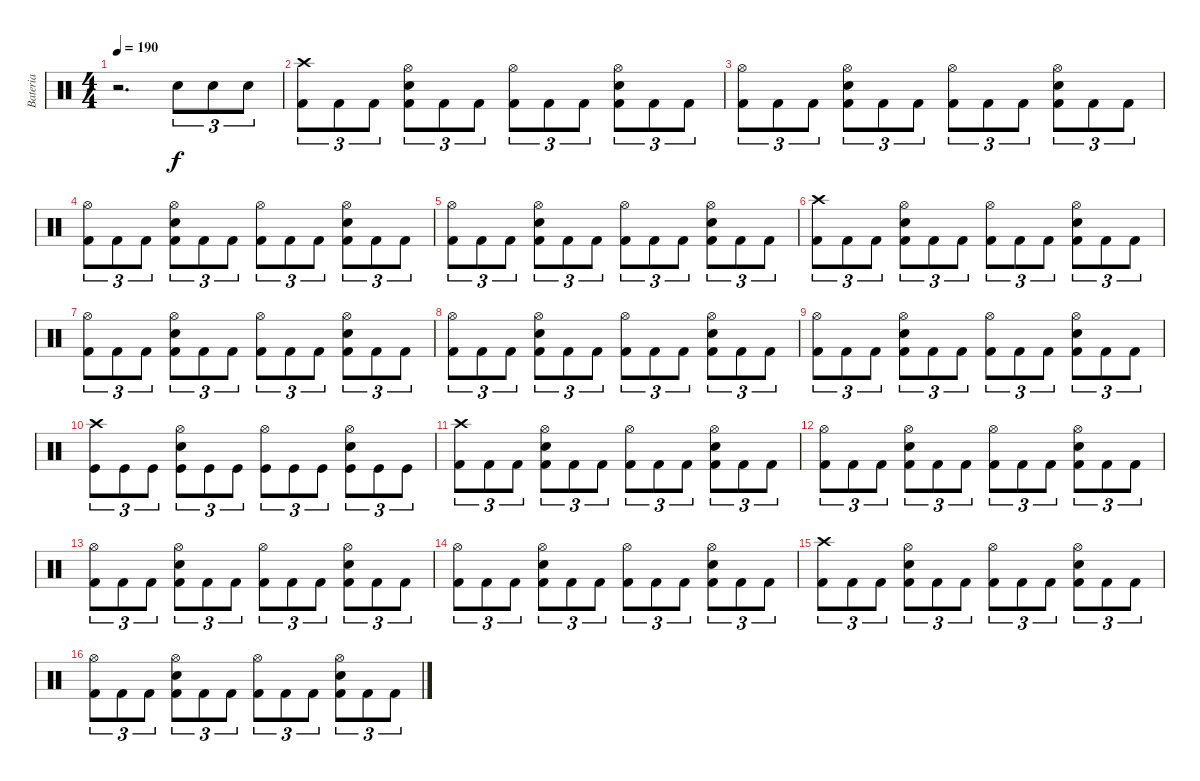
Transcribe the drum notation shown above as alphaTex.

\track ("Bateria" "Bateria") {instrument percussion}
\staff {score}
\articulation defaults
\ts (4 4)
\tempo 190
\clef neutral
\ks c
r.2{d dy f} "Electric Snare (hit)".8{tu (3 2)} "Electric Snare (hit)".8{tu (3 2)} "Electric Snare (hit)".8{tu (3 2)} |
("Crash high (hit)" "Kick (hit) 2").8{tu (3 2)} "Kick (hit) 2".8{tu (3 2)} "Kick (hit) 2".8{tu (3 2)} ("Hi-Hat (open)" "Electric Snare (hit)" "Kick (hit) 2").8{tu (3 2)} "Kick (hit) 2".8{tu (3 2)} "Kick (hit) 2".8{tu (3 2)} ("Hi-Hat (open)" "Kick (hit) 2").8{tu (3 2)} "Kick (hit) 2".8{tu (3 2)} "Kick (hit) 2".8{tu (3 2)} ("Hi-Hat (open)" "Electric Snare (hit)" "Kick (hit) 2").8{tu (3 2)} "Kick (hit) 2".8{tu (3 2)} "Kick (hit) 2".8{tu (3 2)} |
("Hi-Hat (open)" "Kick (hit) 2").8{tu (3 2)} "Kick (hit) 2".8{tu (3 2)} "Kick (hit) 2".8{tu (3 2)} ("Hi-Hat (open)" "Electric Snare (hit)" "Kick (hit) 2").8{tu (3 2)} "Kick (hit) 2".8{tu (3 2)} "Kick (hit) 2".8{tu (3 2)} ("Hi-Hat (open)" "Kick (hit) 2").8{tu (3 2)} "Kick (hit) 2".8{tu (3 2)} "Kick (hit) 2".8{tu (3 2)} ("Hi-Hat (open)" "Electric Snare (hit)" "Kick (hit) 2").8{tu (3 2)} "Kick (hit) 2".8{tu (3 2)} "Kick (hit) 2".8{tu (3 2)} |
("Hi-Hat (open)" "Kick (hit) 2").8{tu (3 2)} "Kick (hit) 2".8{tu (3 2)} "Kick (hit) 2".8{tu (3 2)} ("Hi-Hat (open)" "Electric Snare (hit)" "Kick (hit) 2").8{tu (3 2)} "Kick (hit) 2".8{tu (3 2)} "Kick (hit) 2".8{tu (3 2)} ("Hi-Hat (open)" "Kick (hit) 2").8{tu (3 2)} "Kick (hit) 2".8{tu (3 2)} "Kick (hit) 2".8{tu (3 2)} ("Hi-Hat (open)" "Electric Snare (hit)" "Kick (hit) 2").8{tu (3 2)} "Kick (hit) 2".8{tu (3 2)} "Kick (hit) 2".8{tu (3 2)} |
("Hi-Hat (open)" "Kick (hit) 2").8{tu (3 2)} "Kick (hit) 2".8{tu (3 2)} "Kick (hit) 2".8{tu (3 2)} ("Hi-Hat (open)" "Electric Snare (hit)" "Kick (hit) 2").8{tu (3 2)} "Kick (hit) 2".8{tu (3 2)} "Kick (hit) 2".8{tu (3 2)} ("Hi-Hat (open)" "Kick (hit) 2").8{tu (3 2)} "Kick (hit) 2".8{tu (3 2)} "Kick (hit) 2".8{tu (3 2)} ("Hi-Hat (open)" "Electric Snare (hit)" "Kick (hit) 2").8{tu (3 2)} "Kick (hit) 2".8{tu (3 2)} "Kick (hit) 2".8{tu (3 2)} |
("Crash high (hit)" "Kick (hit) 2").8{tu (3 2)} "Kick (hit) 2".8{tu (3 2)} "Kick (hit) 2".8{tu (3 2)} ("Hi-Hat (open)" "Electric Snare (hit)" "Kick (hit) 2").8{tu (3 2)} "Kick (hit) 2".8{tu (3 2)} "Kick (hit) 2".8{tu (3 2)} ("Hi-Hat (open)" "Kick (hit) 2").8{tu (3 2)} "Kick (hit) 2".8{tu (3 2)} "Kick (hit) 2".8{tu (3 2)} ("Hi-Hat (open)" "Electric Snare (hit)" "Kick (hit) 2").8{tu (3 2)} "Kick (hit) 2".8{tu (3 2)} "Kick (hit) 2".8{tu (3 2)} |
("Hi-Hat (open)" "Kick (hit) 2").8{tu (3 2)} "Kick (hit) 2".8{tu (3 2)} "Kick (hit) 2".8{tu (3 2)} ("Hi-Hat (open)" "Electric Snare (hit)" "Kick (hit) 2").8{tu (3 2)} "Kick (hit) 2".8{tu (3 2)} "Kick (hit) 2".8{tu (3 2)} ("Hi-Hat (open)" "Kick (hit) 2").8{tu (3 2)} "Kick (hit) 2".8{tu (3 2)} "Kick (hit) 2".8{tu (3 2)} ("Hi-Hat (open)" "Electric Snare (hit)" "Kick (hit) 2").8{tu (3 2)} "Kick (hit) 2".8{tu (3 2)} "Kick (hit) 2".8{tu (3 2)} |
("Hi-Hat (open)" "Kick (hit) 2").8{tu (3 2)} "Kick (hit) 2".8{tu (3 2)} "Kick (hit) 2".8{tu (3 2)} ("Hi-Hat (open)" "Electric Snare (hit)" "Kick (hit) 2").8{tu (3 2)} "Kick (hit) 2".8{tu (3 2)} "Kick (hit) 2".8{tu (3 2)} ("Hi-Hat (open)" "Kick (hit) 2").8{tu (3 2)} "Kick (hit) 2".8{tu (3 2)} "Kick (hit) 2".8{tu (3 2)} ("Hi-Hat (open)" "Electric Snare (hit)" "Kick (hit) 2").8{tu (3 2)} "Kick (hit) 2".8{tu (3 2)} "Kick (hit) 2".8{tu (3 2)} |
("Hi-Hat (open)" "Kick (hit) 2").8{tu (3 2)} "Kick (hit) 2".8{tu (3 2)} "Kick (hit) 2".8{tu (3 2)} ("Hi-Hat (open)" "Electric Snare (hit)" "Kick (hit) 2").8{tu (3 2)} "Kick (hit) 2".8{tu (3 2)} "Kick (hit) 2".8{tu (3 2)} ("Hi-Hat (open)" "Kick (hit) 2").8{tu (3 2)} "Kick (hit) 2".8{tu (3 2)} "Kick (hit) 2".8{tu (3 2)} ("Hi-Hat (open)" "Electric Snare (hit)" "Kick (hit) 2").8{tu (3 2)} "Kick (hit) 2".8{tu (3 2)} "Kick (hit) 2".8{tu (3 2)} |
("Crash high (hit)" "Kick (hit)").8{tu (3 2)} "Kick (hit)".8{tu (3 2)} "Kick (hit)".8{tu (3 2)} ("Hi-Hat (open)" "Snare (hit) 2" "Kick (hit)").8{tu (3 2)} "Kick (hit)".8{tu (3 2)} "Kick (hit)".8{tu (3 2)} ("Hi-Hat (open)" "Kick (hit)").8{tu (3 2)} "Kick (hit)".8{tu (3 2)} "Kick (hit)".8{tu (3 2)} ("Hi-Hat (open)" "Snare (hit) 2" "Kick (hit)").8{tu (3 2)} "Kick (hit)".8{tu (3 2)} "Kick (hit)".8{tu (3 2)} |
("Crash high (hit)" "Kick (hit) 2").8{tu (3 2)} "Kick (hit) 2".8{tu (3 2)} "Kick (hit) 2".8{tu (3 2)} ("Hi-Hat (open)" "Electric Snare (hit)" "Kick (hit) 2").8{tu (3 2)} "Kick (hit) 2".8{tu (3 2)} "Kick (hit) 2".8{tu (3 2)} ("Hi-Hat (open)" "Kick (hit) 2").8{tu (3 2)} "Kick (hit) 2".8{tu (3 2)} "Kick (hit) 2".8{tu (3 2)} ("Hi-Hat (open)" "Electric Snare (hit)" "Kick (hit) 2").8{tu (3 2)} "Kick (hit) 2".8{tu (3 2)} "Kick (hit) 2".8{tu (3 2)} |
("Hi-Hat (open)" "Kick (hit) 2").8{tu (3 2)} "Kick (hit) 2".8{tu (3 2)} "Kick (hit) 2".8{tu (3 2)} ("Hi-Hat (open)" "Electric Snare (hit)" "Kick (hit) 2").8{tu (3 2)} "Kick (hit) 2".8{tu (3 2)} "Kick (hit) 2".8{tu (3 2)} ("Hi-Hat (open)" "Kick (hit) 2").8{tu (3 2)} "Kick (hit) 2".8{tu (3 2)} "Kick (hit) 2".8{tu (3 2)} ("Hi-Hat (open)" "Electric Snare (hit)" "Kick (hit) 2").8{tu (3 2)} "Kick (hit) 2".8{tu (3 2)} "Kick (hit) 2".8{tu (3 2)} |
("Hi-Hat (open)" "Kick (hit) 2").8{tu (3 2)} "Kick (hit) 2".8{tu (3 2)} "Kick (hit) 2".8{tu (3 2)} ("Hi-Hat (open)" "Electric Snare (hit)" "Kick (hit) 2").8{tu (3 2)} "Kick (hit) 2".8{tu (3 2)} "Kick (hit) 2".8{tu (3 2)} ("Hi-Hat (open)" "Kick (hit) 2").8{tu (3 2)} "Kick (hit) 2".8{tu (3 2)} "Kick (hit) 2".8{tu (3 2)} ("Hi-Hat (open)" "Electric Snare (hit)" "Kick (hit) 2").8{tu (3 2)} "Kick (hit) 2".8{tu (3 2)} "Kick (hit) 2".8{tu (3 2)} |
("Hi-Hat (open)" "Kick (hit) 2").8{tu (3 2)} "Kick (hit) 2".8{tu (3 2)} "Kick (hit) 2".8{tu (3 2)} ("Hi-Hat (open)" "Electric Snare (hit)" "Kick (hit) 2").8{tu (3 2)} "Kick (hit) 2".8{tu (3 2)} "Kick (hit) 2".8{tu (3 2)} ("Hi-Hat (open)" "Kick (hit) 2").8{tu (3 2)} "Kick (hit) 2".8{tu (3 2)} "Kick (hit) 2".8{tu (3 2)} ("Hi-Hat (open)" "Electric Snare (hit)" "Kick (hit) 2").8{tu (3 2)} "Kick (hit) 2".8{tu (3 2)} "Kick (hit) 2".8{tu (3 2)} |
("Crash high (hit)" "Kick (hit) 2").8{tu (3 2)} "Kick (hit) 2".8{tu (3 2)} "Kick (hit) 2".8{tu (3 2)} ("Hi-Hat (open)" "Electric Snare (hit)" "Kick (hit) 2").8{tu (3 2)} "Kick (hit) 2".8{tu (3 2)} "Kick (hit) 2".8{tu (3 2)} ("Hi-Hat (open)" "Kick (hit) 2").8{tu (3 2)} "Kick (hit) 2".8{tu (3 2)} "Kick (hit) 2".8{tu (3 2)} ("Hi-Hat (open)" "Electric Snare (hit)" "Kick (hit) 2").8{tu (3 2)} "Kick (hit) 2".8{tu (3 2)} "Kick (hit) 2".8{tu (3 2)} |
("Hi-Hat (open)" "Kick (hit) 2").8{tu (3 2)} "Kick (hit) 2".8{tu (3 2)} "Kick (hit) 2".8{tu (3 2)} ("Hi-Hat (open)" "Electric Snare (hit)" "Kick (hit) 2").8{tu (3 2)} "Kick (hit) 2".8{tu (3 2)} "Kick (hit) 2".8{tu (3 2)} ("Hi-Hat (open)" "Kick (hit) 2").8{tu (3 2)} "Kick (hit) 2".8{tu (3 2)} "Kick (hit) 2".8{tu (3 2)} ("Hi-Hat (open)" "Electric Snare (hit)" "Kick (hit) 2").8{tu (3 2)} "Kick (hit) 2".8{tu (3 2)} "Kick (hit) 2".8{tu (3 2)}
